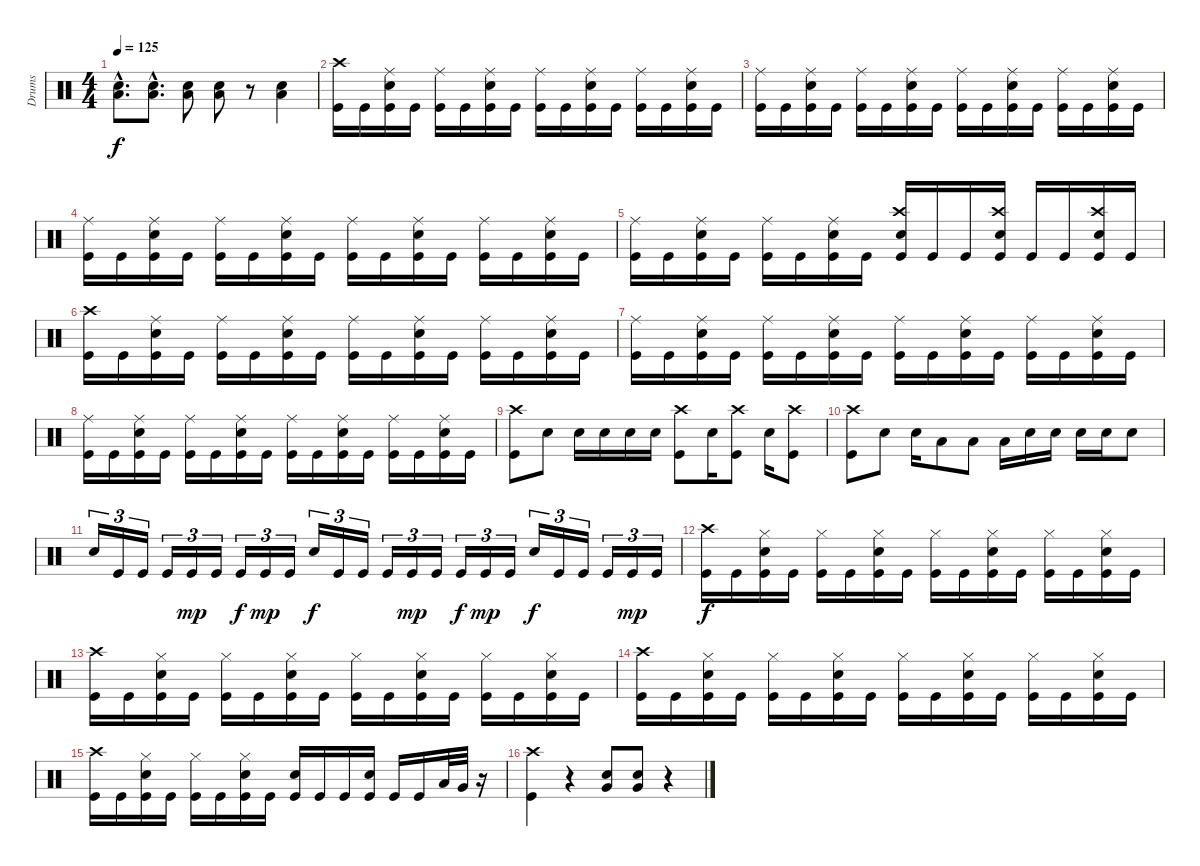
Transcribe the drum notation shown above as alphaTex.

\track ("Drums" "Drums") {instrument percussion}
\staff {score}
\articulation defaults
\ts (4 4)
\tempo 125
\clef neutral
\ks c
("Snare (hit) 2"{hac} "Low Tom (hit)"{hac}).8{d dy f} ("Snare (hit) 2"{hac} "Low Tom (hit)"{hac}).8{d} ("Snare (hit) 2" "Low Tom (hit)").8 ("Snare (hit) 2" "Low Tom (hit)").8 r.8 ("Snare (hit) 2" "Low Tom (hit)").4 |
("Crash high (hit)" "Kick (hit)").16 "Kick (hit)".16 ("Ride (middle)" "Snare (hit) 2" "Kick (hit)").16 "Kick (hit)".16 ("Ride (middle)" "Kick (hit)").16 "Kick (hit)".16 ("Ride (middle)" "Snare (hit) 2" "Kick (hit)").16 "Kick (hit)".16 ("Ride (middle)" "Kick (hit)").16 "Kick (hit)".16 ("Ride (middle)" "Snare (hit) 2" "Kick (hit)").16 "Kick (hit)".16 ("Ride (middle)" "Kick (hit)").16 "Kick (hit)".16 ("Ride (middle)" "Snare (hit) 2" "Kick (hit)").16 "Kick (hit)".16 |
("Ride (middle)" "Kick (hit)").16 "Kick (hit)".16 ("Ride (middle)" "Snare (hit) 2" "Kick (hit)").16 "Kick (hit)".16 ("Ride (middle)" "Kick (hit)").16 "Kick (hit)".16 ("Ride (middle)" "Snare (hit) 2" "Kick (hit)").16 "Kick (hit)".16 ("Ride (middle)" "Kick (hit)").16 "Kick (hit)".16 ("Ride (middle)" "Snare (hit) 2" "Kick (hit)").16 "Kick (hit)".16 ("Ride (middle)" "Kick (hit)").16 "Kick (hit)".16 ("Ride (middle)" "Snare (hit) 2" "Kick (hit)").16 "Kick (hit)".16 |
("Ride (middle)" "Kick (hit)").16 "Kick (hit)".16 ("Ride (middle)" "Snare (hit) 2" "Kick (hit)").16 "Kick (hit)".16 ("Ride (middle)" "Kick (hit)").16 "Kick (hit)".16 ("Ride (middle)" "Snare (hit) 2" "Kick (hit)").16 "Kick (hit)".16 ("Ride (middle)" "Kick (hit)").16 "Kick (hit)".16 ("Ride (middle)" "Snare (hit) 2" "Kick (hit)").16 "Kick (hit)".16 ("Ride (middle)" "Kick (hit)").16 "Kick (hit)".16 ("Ride (middle)" "Snare (hit) 2" "Kick (hit)").16 "Kick (hit)".16 |
("Ride (middle)" "Kick (hit)").16 "Kick (hit)".16 ("Ride (middle)" "Snare (hit) 2" "Kick (hit)").16 "Kick (hit)".16 ("Ride (middle)" "Kick (hit)").16 "Kick (hit)".16 ("Ride (middle)" "Snare (hit) 2" "Kick (hit)").16 "Kick (hit)".16 ("Crash high (hit)" "Snare (hit) 2" "Kick (hit)").16 "Kick (hit)".16 "Kick (hit)".16 ("Crash high (hit)" "Snare (hit) 2" "Kick (hit)").16 "Kick (hit)".16 "Kick (hit)".16 ("Crash high (hit)" "Snare (hit) 2" "Kick (hit)").16 "Kick (hit)".16 |
("Crash high (hit)" "Kick (hit)").16 "Kick (hit)".16 ("Ride (middle)" "Snare (hit) 2" "Kick (hit)").16 "Kick (hit)".16 ("Ride (middle)" "Kick (hit)").16 "Kick (hit)".16 ("Ride (middle)" "Snare (hit) 2" "Kick (hit)").16 "Kick (hit)".16 ("Ride (middle)" "Kick (hit)").16 "Kick (hit)".16 ("Ride (middle)" "Snare (hit) 2" "Kick (hit)").16 "Kick (hit)".16 ("Ride (middle)" "Kick (hit)").16 "Kick (hit)".16 ("Ride (middle)" "Snare (hit) 2" "Kick (hit)").16 "Kick (hit)".16 |
("Ride (middle)" "Kick (hit)").16 "Kick (hit)".16 ("Ride (middle)" "Snare (hit) 2" "Kick (hit)").16 "Kick (hit)".16 ("Ride (middle)" "Kick (hit)").16 "Kick (hit)".16 ("Ride (middle)" "Snare (hit) 2" "Kick (hit)").16 "Kick (hit)".16 ("Ride (middle)" "Kick (hit)").16 "Kick (hit)".16 ("Ride (middle)" "Snare (hit) 2" "Kick (hit)").16 "Kick (hit)".16 ("Ride (middle)" "Kick (hit)").16 "Kick (hit)".16 ("Ride (middle)" "Snare (hit) 2" "Kick (hit)").16 "Kick (hit)".16 |
("Ride (middle)" "Kick (hit)").16 "Kick (hit)".16 ("Ride (middle)" "Snare (hit) 2" "Kick (hit)").16 "Kick (hit)".16 ("Ride (middle)" "Kick (hit)").16 "Kick (hit)".16 ("Ride (middle)" "Snare (hit) 2" "Kick (hit)").16 "Kick (hit)".16 ("Ride (middle)" "Kick (hit)").16 "Kick (hit)".16 ("Ride (middle)" "Snare (hit) 2" "Kick (hit)").16 "Kick (hit)".16 ("Ride (middle)" "Kick (hit)").16 "Kick (hit)".16 ("Ride (middle)" "Snare (hit) 2" "Kick (hit)").16 "Kick (hit)".16 |
("Crash high (hit)" "Kick (hit)").8 "Snare (hit) 2".8 "Snare (hit) 2".16 "Snare (hit) 2".16 "Snare (hit) 2".16 "Snare (hit) 2".16 ("Crash high (hit)" "Kick (hit)").8 "Snare (hit) 2".16 ("Crash high (hit)" "Kick (hit)").8 "Snare (hit) 2".16 ("Crash high (hit)" "Kick (hit)").8 |
("Crash high (hit)" "Kick (hit)").8 "Snare (hit) 2".8 "Snare (hit) 2".16 "Low Tom (hit)".8 "Low Tom (hit)".8 "Low Tom (hit)".16 "Snare (hit) 2".16 "Snare (hit) 2".16 "Snare (hit) 2".16 "Snare (hit) 2".16 "Snare (hit) 2".8 |
"Snare (hit) 2".16{tu (3 2)} "Kick (hit)".16{tu (3 2)} "Kick (hit)".16{tu (3 2)} "Kick (hit)".16{tu (3 2)} "Kick (hit)".16{tu (3 2) dy mp} "Kick (hit)".16{tu (3 2)} "Kick (hit)".16{tu (3 2) dy f} "Kick (hit)".16{tu (3 2) dy mp} "Kick (hit)".16{tu (3 2)} "Snare (hit) 2".16{tu (3 2) dy f} "Kick (hit)".16{tu (3 2)} "Kick (hit)".16{tu (3 2)} "Kick (hit)".16{tu (3 2)} "Kick (hit)".16{tu (3 2) dy mp} "Kick (hit)".16{tu (3 2)} "Kick (hit)".16{tu (3 2) dy f} "Kick (hit)".16{tu (3 2) dy mp} "Kick (hit)".16{tu (3 2)} "Snare (hit) 2".16{tu (3 2) dy f} "Kick (hit)".16{tu (3 2)} "Kick (hit)".16{tu (3 2)} "Kick (hit)".16{tu (3 2)} "Kick (hit)".16{tu (3 2) dy mp} "Kick (hit)".16{tu (3 2)} |
("Crash high (hit)" "Kick (hit)").16{dy f} "Kick (hit)".16 ("Hi-Hat (closed)" "Snare (hit) 2" "Kick (hit)").16 "Kick (hit)".16 ("Hi-Hat (closed)" "Kick (hit)").16 "Kick (hit)".16 ("Hi-Hat (closed)" "Snare (hit) 2" "Kick (hit)").16 "Kick (hit)".16 ("Hi-Hat (closed)" "Kick (hit)").16 "Kick (hit)".16 ("Hi-Hat (closed)" "Snare (hit) 2" "Kick (hit)").16 "Kick (hit)".16 ("Hi-Hat (closed)" "Kick (hit)").16 "Kick (hit)".16 ("Hi-Hat (closed)" "Snare (hit) 2" "Kick (hit)").16 "Kick (hit)".16 |
("Crash high (hit)" "Kick (hit)").16 "Kick (hit)".16 ("Hi-Hat (closed)" "Snare (hit) 2" "Kick (hit)").16 "Kick (hit)".16 ("Hi-Hat (closed)" "Kick (hit)").16 "Kick (hit)".16 ("Hi-Hat (closed)" "Snare (hit) 2" "Kick (hit)").16 "Kick (hit)".16 ("Hi-Hat (closed)" "Kick (hit)").16 "Kick (hit)".16 ("Hi-Hat (closed)" "Snare (hit) 2" "Kick (hit)").16 "Kick (hit)".16 ("Hi-Hat (closed)" "Kick (hit)").16 "Kick (hit)".16 ("Hi-Hat (closed)" "Snare (hit) 2" "Kick (hit)").16 "Kick (hit)".16 |
("Crash high (hit)" "Kick (hit)").16 "Kick (hit)".16 ("Hi-Hat (closed)" "Snare (hit) 2" "Kick (hit)").16 "Kick (hit)".16 ("Hi-Hat (closed)" "Kick (hit)").16 "Kick (hit)".16 ("Hi-Hat (closed)" "Snare (hit) 2" "Kick (hit)").16 "Kick (hit)".16 ("Hi-Hat (closed)" "Kick (hit)").16 "Kick (hit)".16 ("Hi-Hat (closed)" "Snare (hit) 2" "Kick (hit)").16 "Kick (hit)".16 ("Hi-Hat (closed)" "Kick (hit)").16 "Kick (hit)".16 ("Hi-Hat (closed)" "Snare (hit) 2" "Kick (hit)").16 "Kick (hit)".16 |
("Crash high (hit)" "Kick (hit)").16 "Kick (hit)".16 ("Hi-Hat (closed)" "Snare (hit) 2" "Kick (hit)").16 "Kick (hit)".16 ("Hi-Hat (closed)" "Kick (hit)").16 "Kick (hit)".16 ("Hi-Hat (closed)" "Snare (hit) 2" "Kick (hit)").16 "Kick (hit)".16 ("Snare (hit) 2" "Kick (hit)").16 "Kick (hit)".16 "Kick (hit)".16 ("Snare (hit) 2" "Kick (hit)").16 "Kick (hit)".16 "Kick (hit)".16 "Low Tom (hit)".32 "Very Low Tom (hit)".32 r.16 |
("Crash high (hit)" "Kick (hit)").4 r.4 ("Snare (hit) 2" "Very Low Tom (hit)").8 ("Snare (hit) 2" "Very Low Tom (hit)").8 r.4
